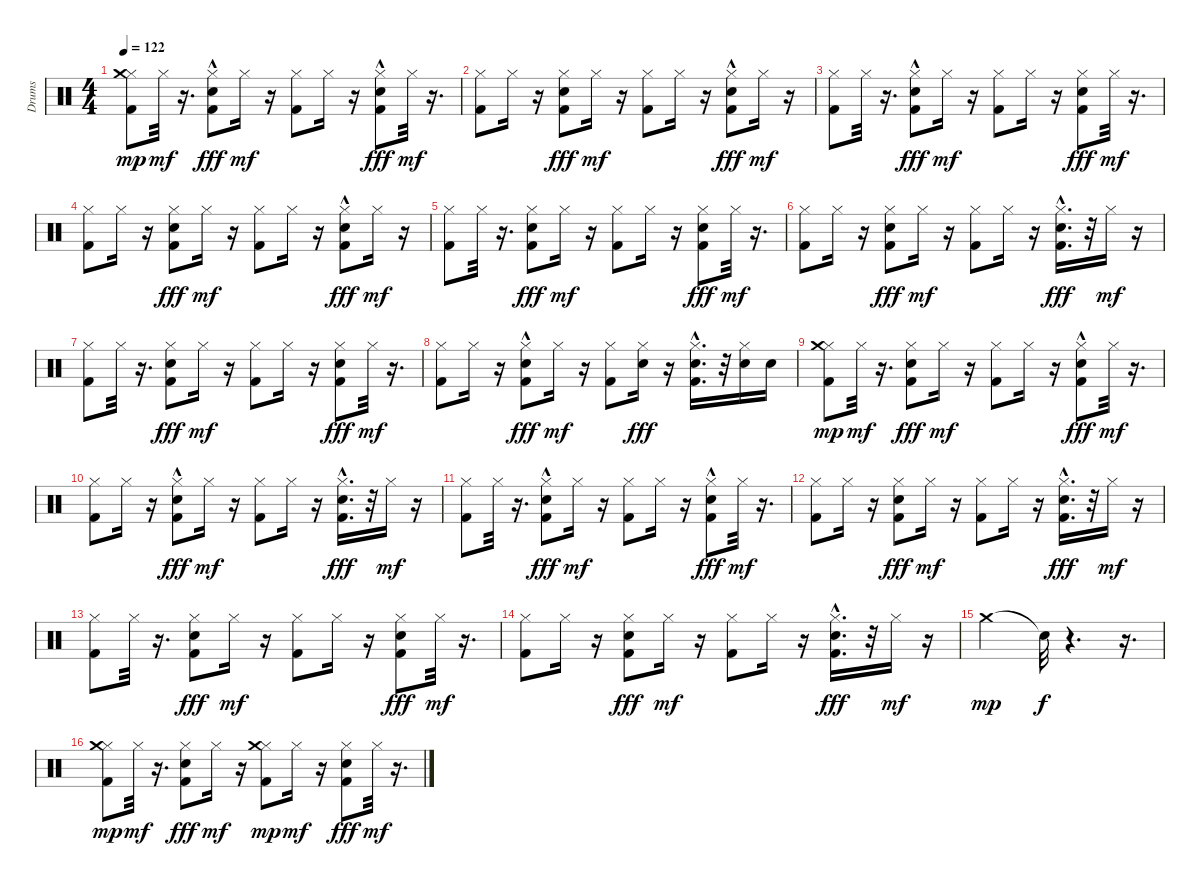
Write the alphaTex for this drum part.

\track ("Drums" "Drums") {instrument percussion}
\staff {score}
\articulation defaults
\ts (4 4)
\tempo 122
\clef neutral
\ks c
("Hi-Hat (closed)" "Crash medium (hit)" "Kick (hit) 2").8{dy mp} "Hi-Hat (closed)".32{dy mf} r.16{d} ("Hi-Hat (closed)" "Electric Snare (hit)"{hac} "Kick (hit) 2").8{dy fff} "Hi-Hat (closed)".16{dy mf} r.16 ("Hi-Hat (closed)" "Kick (hit) 2").8 "Hi-Hat (closed)".16 r.16 ("Hi-Hat (closed)" "Electric Snare (hit)"{hac} "Kick (hit) 2").8{dy fff} "Hi-Hat (closed)".32{dy mf} r.16{d} |
("Hi-Hat (closed)" "Kick (hit) 2").8 "Hi-Hat (closed)".16 r.16 ("Hi-Hat (closed)" "Electric Snare (hit)" "Kick (hit) 2").8{dy fff} "Hi-Hat (closed)".16{dy mf} r.16 ("Hi-Hat (closed)" "Kick (hit) 2").8 "Hi-Hat (closed)".16 r.16 ("Hi-Hat (closed)" "Electric Snare (hit)"{hac} "Kick (hit) 2"{hac}).8{dy fff} "Hi-Hat (closed)".16{dy mf} r.16 |
("Hi-Hat (closed)" "Kick (hit) 2").8 "Hi-Hat (closed)".32 r.16{d} ("Hi-Hat (closed)" "Electric Snare (hit)"{hac} "Kick (hit) 2").8{dy fff} "Hi-Hat (closed)".16{dy mf} r.16 ("Hi-Hat (closed)" "Kick (hit) 2").8 "Hi-Hat (closed)".16 r.16 ("Hi-Hat (closed)" "Electric Snare (hit)" "Kick (hit) 2").8{dy fff} "Hi-Hat (closed)".32{dy mf} r.16{d} |
("Hi-Hat (closed)" "Kick (hit) 2").8 "Hi-Hat (closed)".16 r.16 ("Hi-Hat (closed)" "Electric Snare (hit)" "Kick (hit) 2").8{dy fff} "Hi-Hat (closed)".16{dy mf} r.16 ("Hi-Hat (closed)" "Kick (hit) 2").8 "Hi-Hat (closed)".16 r.16 ("Hi-Hat (closed)" "Electric Snare (hit)" "Kick (hit) 2"{hac}).8{dy fff} "Hi-Hat (closed)".16{dy mf} r.16 |
("Hi-Hat (closed)" "Kick (hit) 2").8 "Hi-Hat (closed)".32 r.16{d} ("Hi-Hat (closed)" "Electric Snare (hit)" "Kick (hit) 2").8{dy fff} "Hi-Hat (closed)".16{dy mf} r.16 ("Hi-Hat (closed)" "Kick (hit) 2").8 "Hi-Hat (closed)".16 r.16 ("Hi-Hat (closed)" "Electric Snare (hit)" "Kick (hit) 2").8{dy fff} "Hi-Hat (closed)".32{dy mf} r.16{d} |
("Hi-Hat (closed)" "Kick (hit) 2").8 "Hi-Hat (closed)".16 r.16 ("Hi-Hat (closed)" "Electric Snare (hit)" "Kick (hit) 2").8{dy fff} "Hi-Hat (closed)".16{dy mf} r.16 ("Hi-Hat (closed)" "Kick (hit) 2").8 "Hi-Hat (closed)".16 r.16 ("Hi-Hat (closed)" "Electric Snare (hit)"{hac} "Kick (hit) 2"{hac}).16{d dy fff} r.32 "Hi-Hat (closed)".16{dy mf} r.16 |
("Hi-Hat (closed)" "Kick (hit) 2").8 "Hi-Hat (closed)".32 r.16{d} ("Hi-Hat (closed)" "Electric Snare (hit)" "Kick (hit) 2").8{dy fff} "Hi-Hat (closed)".16{dy mf} r.16 ("Hi-Hat (closed)" "Kick (hit) 2").8 "Hi-Hat (closed)".16 r.16 ("Hi-Hat (closed)" "Electric Snare (hit)" "Kick (hit) 2").8{dy fff} "Hi-Hat (closed)".32{dy mf} r.16{d} |
("Hi-Hat (closed)" "Kick (hit) 2").8 "Hi-Hat (closed)".16 r.16 ("Hi-Hat (closed)" "Electric Snare (hit)"{hac} "Kick (hit) 2").8{dy fff} "Hi-Hat (closed)".16{dy mf} r.16 ("Hi-Hat (closed)" "Kick (hit) 2").8 ("Hi-Hat (closed)" "Electric Snare (hit)").16{dy fff} r.16 ("Hi-Hat (closed)" "Electric Snare (hit)" "Kick (hit) 2"{hac}).16{d} r.32 ("Hi-Hat (closed)" "Electric Snare (hit)").16 "Electric Snare (hit)".16 |
("Hi-Hat (closed)" "Crash medium (hit)" "Kick (hit) 2").8{dy mp} "Hi-Hat (closed)".32{dy mf} r.16{d} ("Hi-Hat (closed)" "Electric Snare (hit)" "Kick (hit) 2").8{dy fff} "Hi-Hat (closed)".16{dy mf} r.16 ("Hi-Hat (closed)" "Kick (hit) 2").8 "Hi-Hat (closed)".16 r.16 ("Hi-Hat (closed)" "Electric Snare (hit)"{hac} "Kick (hit) 2").8{dy fff} "Hi-Hat (closed)".32{dy mf} r.16{d} |
("Hi-Hat (closed)" "Kick (hit) 2").8 "Hi-Hat (closed)".16 r.16 ("Hi-Hat (closed)" "Electric Snare (hit)"{hac} "Kick (hit) 2").8{dy fff} "Hi-Hat (closed)".16{dy mf} r.16 ("Hi-Hat (closed)" "Kick (hit) 2").8 "Hi-Hat (closed)".16 r.16 ("Hi-Hat (closed)" "Electric Snare (hit)"{hac} "Kick (hit) 2"{hac}).16{d dy fff} r.32 "Hi-Hat (closed)".16{dy mf} r.16 |
("Hi-Hat (closed)" "Kick (hit) 2").8 "Hi-Hat (closed)".32 r.16{d} ("Hi-Hat (closed)" "Electric Snare (hit)"{hac} "Kick (hit) 2").8{dy fff} "Hi-Hat (closed)".16{dy mf} r.16 ("Hi-Hat (closed)" "Kick (hit) 2").8 "Hi-Hat (closed)".16 r.16 ("Hi-Hat (closed)" "Electric Snare (hit)"{hac} "Kick (hit) 2").8{dy fff} "Hi-Hat (closed)".32{dy mf} r.16{d} |
("Hi-Hat (closed)" "Kick (hit) 2").8 "Hi-Hat (closed)".16 r.16 ("Hi-Hat (closed)" "Electric Snare (hit)" "Kick (hit) 2").8{dy fff} "Hi-Hat (closed)".16{dy mf} r.16 ("Hi-Hat (closed)" "Kick (hit) 2").8 "Hi-Hat (closed)".16 r.16 ("Hi-Hat (closed)" "Electric Snare (hit)" "Kick (hit) 2"{hac}).16{d dy fff} r.32 "Hi-Hat (closed)".16{dy mf} r.16 |
("Hi-Hat (closed)" "Kick (hit) 2").8 "Hi-Hat (closed)".32 r.16{d} ("Hi-Hat (closed)" "Electric Snare (hit)" "Kick (hit) 2").8{dy fff} "Hi-Hat (closed)".16{dy mf} r.16 ("Hi-Hat (closed)" "Kick (hit) 2").8 "Hi-Hat (closed)".16 r.16 ("Hi-Hat (closed)" "Electric Snare (hit)" "Kick (hit) 2").8{dy fff} "Hi-Hat (closed)".32{dy mf} r.16{d} |
("Hi-Hat (closed)" "Kick (hit) 2").8 "Hi-Hat (closed)".16 r.16 ("Hi-Hat (closed)" "Electric Snare (hit)" "Kick (hit) 2").8{dy fff} "Hi-Hat (closed)".16{dy mf} r.16 ("Hi-Hat (closed)" "Kick (hit) 2").8 "Hi-Hat (closed)".16 r.16 ("Hi-Hat (closed)" "Electric Snare (hit)" "Kick (hit) 2"{hac}).16{d dy fff} r.32 "Hi-Hat (closed)".16{dy mf} r.16 |
"Crash medium (hit)".2{dy mp} "Snare (hit)"{t}.32{dy f} r.4{d} r.16{d} |
("Hi-Hat (closed)" "Crash medium (hit)" "Kick (hit) 2").8{dy mp} "Hi-Hat (closed)".32{dy mf} r.16{d} ("Hi-Hat (closed)" "Electric Snare (hit)" "Kick (hit) 2").8{dy fff} "Hi-Hat (closed)".16{dy mf} r.16 ("Hi-Hat (closed)" "Crash medium (hit)" "Kick (hit) 2").8{dy mp} "Hi-Hat (closed)".16{dy mf} r.16 ("Hi-Hat (closed)" "Electric Snare (hit)" "Kick (hit) 2").8{dy fff} "Hi-Hat (closed)".32{dy mf} r.16{d}
